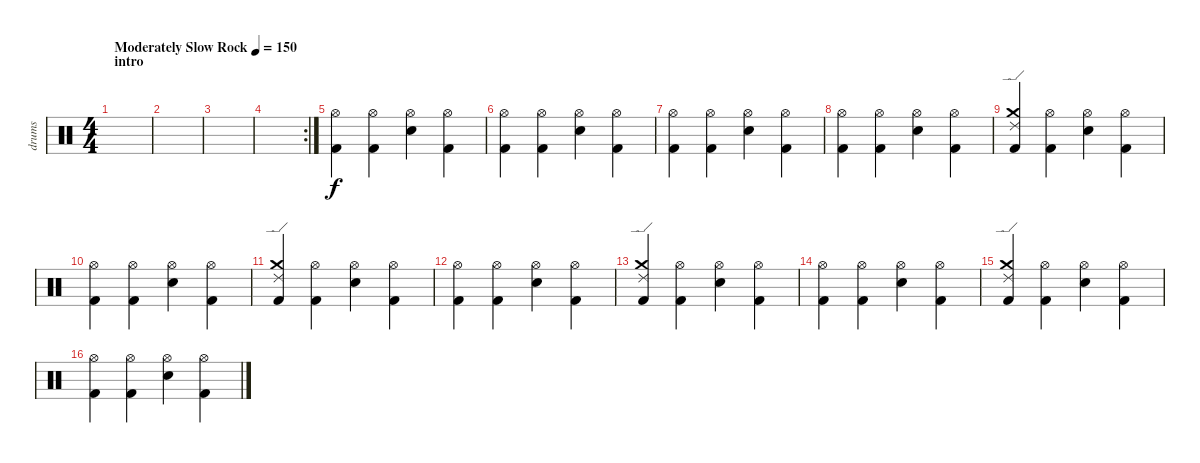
\track ("drums" "drums") {instrument percussion}
\staff {score}
\articulation defaults
\ts (4 4)
\section ("" "intro")
\tempo (150 "Moderately Slow Rock")
\clef neutral
\ks c
|
|
|
\rc 2
|
("Hi-Hat (open)" "Kick (hit) 2").4 ("Hi-Hat (open)" "Kick (hit) 2").4 ("Hi-Hat (open)" "Electric Snare (hit)").4 ("Hi-Hat (open)" "Kick (hit) 2").4 |
("Hi-Hat (open)" "Kick (hit) 2").4 ("Hi-Hat (open)" "Kick (hit) 2").4 ("Hi-Hat (open)" "Electric Snare (hit)").4 ("Hi-Hat (open)" "Kick (hit) 2").4 |
("Hi-Hat (open)" "Kick (hit) 2").4 ("Hi-Hat (open)" "Kick (hit) 2").4 ("Hi-Hat (open)" "Electric Snare (hit)").4 ("Hi-Hat (open)" "Kick (hit) 2").4 |
("Hi-Hat (open)" "Kick (hit) 2").4 ("Hi-Hat (open)" "Kick (hit) 2").4 ("Hi-Hat (open)" "Electric Snare (hit)").4 ("Hi-Hat (open)" "Kick (hit) 2").4 |
("Kick (hit) 2" "Crash medium (hit)" "Ride (edge) 2").4 ("Hi-Hat (open)" "Kick (hit) 2").4 ("Hi-Hat (open)" "Electric Snare (hit)").4 ("Hi-Hat (open)" "Kick (hit) 2").4 |
("Hi-Hat (open)" "Kick (hit) 2").4 ("Hi-Hat (open)" "Kick (hit) 2").4 ("Hi-Hat (open)" "Electric Snare (hit)").4 ("Hi-Hat (open)" "Kick (hit) 2").4 |
("Kick (hit) 2" "Crash medium (hit)" "Ride (edge) 2").4 ("Hi-Hat (open)" "Kick (hit) 2").4 ("Hi-Hat (open)" "Electric Snare (hit)").4 ("Hi-Hat (open)" "Kick (hit) 2").4 |
("Hi-Hat (open)" "Kick (hit) 2").4 ("Hi-Hat (open)" "Kick (hit) 2").4 ("Hi-Hat (open)" "Electric Snare (hit)").4 ("Hi-Hat (open)" "Kick (hit) 2").4 |
("Kick (hit) 2" "Crash medium (hit)" "Ride (edge) 2").4 ("Hi-Hat (open)" "Kick (hit) 2").4 ("Hi-Hat (open)" "Electric Snare (hit)").4 ("Hi-Hat (open)" "Kick (hit) 2").4 |
("Hi-Hat (open)" "Kick (hit) 2").4 ("Hi-Hat (open)" "Kick (hit) 2").4 ("Hi-Hat (open)" "Electric Snare (hit)").4 ("Hi-Hat (open)" "Kick (hit) 2").4 |
("Kick (hit) 2" "Crash medium (hit)" "Ride (edge) 2").4 ("Hi-Hat (open)" "Kick (hit) 2").4 ("Hi-Hat (open)" "Electric Snare (hit)").4 ("Hi-Hat (open)" "Kick (hit) 2").4 |
("Hi-Hat (open)" "Kick (hit) 2").4 ("Hi-Hat (open)" "Kick (hit) 2").4 ("Hi-Hat (open)" "Electric Snare (hit)").4 ("Hi-Hat (open)" "Kick (hit) 2").4
